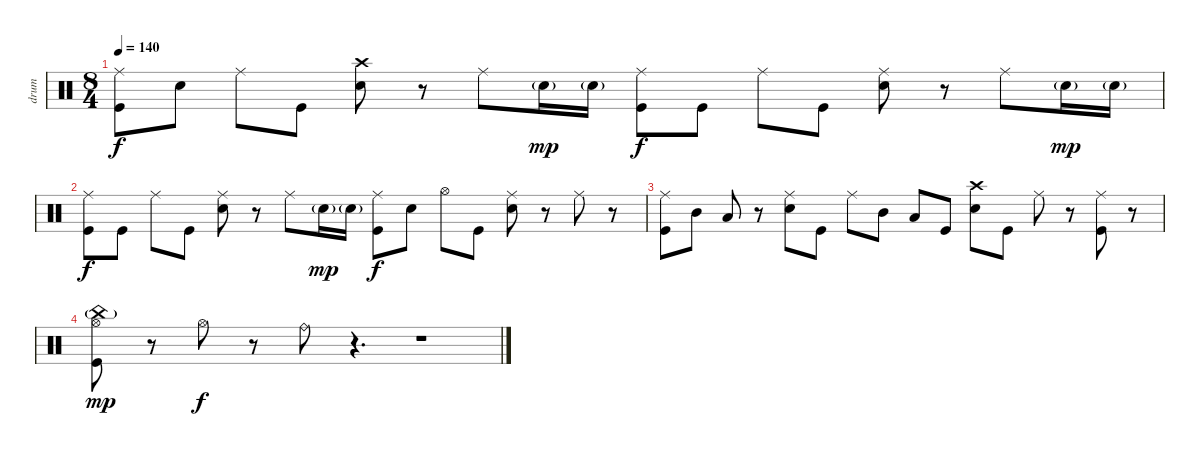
\track ("drum" "drum") {instrument percussion}
\staff {score}
\articulation defaults
\ts (8 4)
\tempo 140
\clef neutral
\ks c
("Ride (middle)" "Kick (hit)").8{dy f volume 16} "Electric Snare (hit)".8 "Ride (middle)".8 "Kick (hit)".8 ("Crash high (hit)" "Electric Snare (hit)").8 r.8 "Ride (middle)".8 "Electric Snare (hit)"{g}.16{dy mp volume 11} "Electric Snare (hit)"{g}.16 ("Ride (middle)" "Kick (hit)").8{dy f volume 16} "Kick (hit)".8 "Ride (middle)".8 "Kick (hit)".8 ("Ride (middle)" "Electric Snare (hit)").8 r.8 "Ride (middle)".8 "Electric Snare (hit)"{g}.16{dy mp volume 11} "Electric Snare (hit)"{g}.16 |
("Ride (middle)" "Kick (hit)").8{dy f volume 16} "Kick (hit)".8 "Ride (middle)".8 "Kick (hit)".8 ("Ride (middle)" "Electric Snare (hit)").8 r.8 "Ride (middle)".8 "Electric Snare (hit)"{g}.16{dy mp volume 11} "Electric Snare (hit)"{g}.16 ("Ride (middle)" "Kick (hit)").8{dy f volume 16} "Electric Snare (hit)".8 "Hi-Hat (open)".8 "Kick (hit)".8 ("Ride (middle)" "Electric Snare (hit)").8 r.8 "Ride (middle)".8 r.8 |
("Ride (middle)" "Kick (hit)").8{volume 16} "Mid Tom (hit)".8 "Low Floor Tom (hit)".8 r.8 ("Ride (middle)" "Electric Snare (hit)").8 "Kick (hit)".8 "Ride (middle)".8 "Mid Tom (hit)".8 "Low Floor Tom (hit)".8 "Kick (hit)".8 ("Crash high (hit)" "Electric Snare (hit)").8 "Kick (hit)".8 "Ride (middle)".8 r.8 ("Ride (middle)" "Kick (hit)").8 r.8 |
("Hi-Hat (open)" "China (hit)"{g} "Kick (hit)").8{dy mp} r.8 "Hi-Hat (open)".8{dy f} r.8 "Ride (bell)".8 r.4{d} r.1
